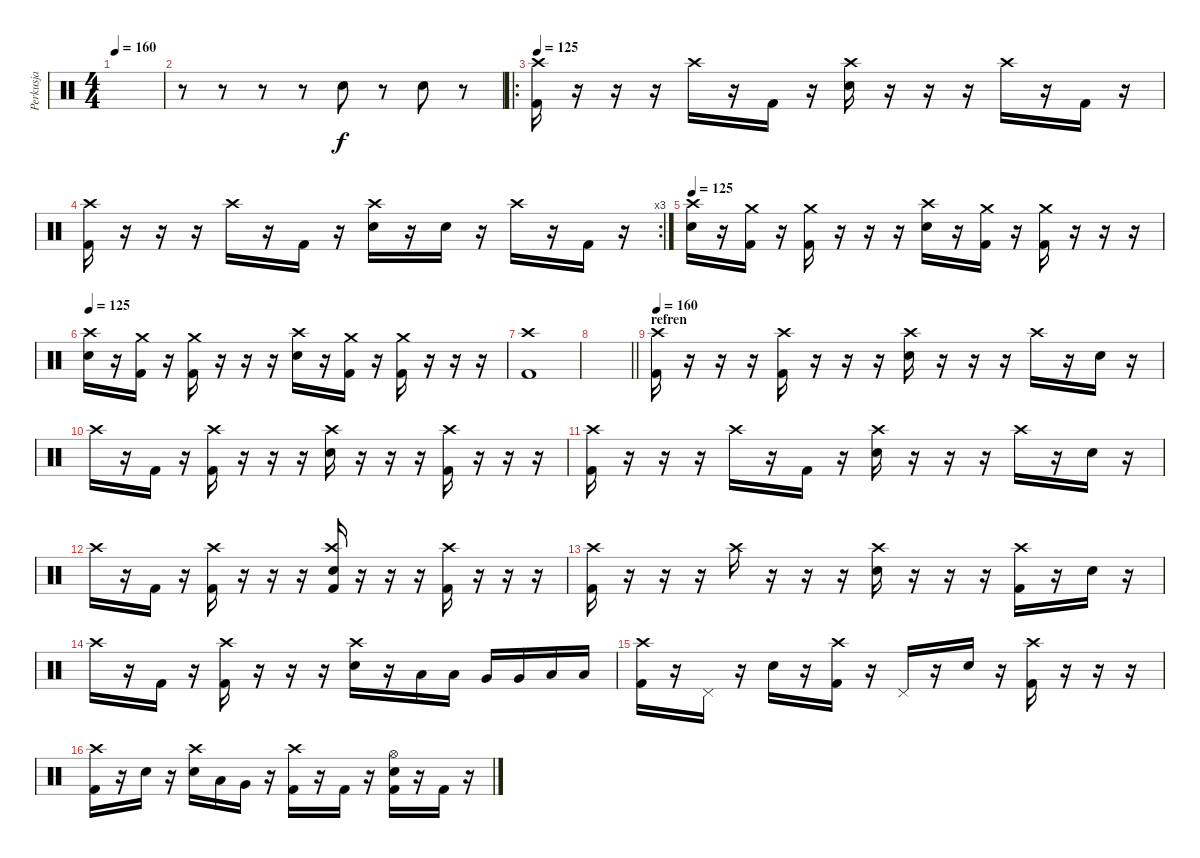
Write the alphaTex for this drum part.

\track ("Perkusja" "Perkusja") {instrument percussion}
\staff {score}
\articulation defaults
\ts (4 4)
\tempo 160
\clef neutral
\ks c
|
r.8 r.8 r.8 r.8 "Electric Snare (hit)".8 r.8 "Electric Snare (hit)".8 r.8 |
\ro
\tempo 125
("Crash high (hit)" "Kick (hit) 2").16 r.16 r.16 r.16 "Crash high (hit)".16 r.16 "Kick (hit) 2".16 r.16 ("Crash high (hit)" "Electric Snare (hit)").16 r.16 r.16 r.16 "Crash high (hit)".16 r.16 "Kick (hit) 2".16 r.16 |
\rc 3
("Crash high (hit)" "Kick (hit) 2").16 r.16 r.16 r.16 "Crash high (hit)".16 r.16 "Kick (hit) 2".16 r.16 ("Crash high (hit)" "Electric Snare (hit)").16 r.16 "Electric Snare (hit)".16 r.16 "Crash high (hit)".16 r.16 "Kick (hit) 2".16 r.16 |
\tempo 125
("Crash high (hit)" "Electric Snare (hit)").16 r.16 ("Crash medium (hit)" "Kick (hit) 2").16 r.16 ("Crash medium (hit)" "Kick (hit) 2").16 r.16 r.16 r.16 ("Crash high (hit)" "Electric Snare (hit)").16 r.16 ("Crash medium (hit)" "Kick (hit) 2").16 r.16 ("Crash medium (hit)" "Kick (hit) 2").16 r.16 r.16 r.16 |
\tempo 125
("Crash high (hit)" "Electric Snare (hit)").16 r.16 ("Crash medium (hit)" "Kick (hit) 2").16 r.16 ("Crash medium (hit)" "Kick (hit) 2").16 r.16 r.16 r.16 ("Crash high (hit)" "Electric Snare (hit)").16 r.16 ("Crash medium (hit)" "Kick (hit) 2").16 r.16 ("Crash medium (hit)" "Kick (hit) 2").16 r.16 r.16 r.16 |
("Crash high (hit)" "Kick (hit) 2").1 |
\barLineRight lightlight
|
\section ("" "refren")
\tempo 160
("Crash high (hit)" "Kick (hit) 2").16 r.16 r.16 r.16 ("Crash high (hit)" "Kick (hit) 2").16 r.16 r.16 r.16 ("Crash high (hit)" "Electric Snare (hit)").16 r.16 r.16 r.16 "Crash high (hit)".16 r.16 "Electric Snare (hit)".16 r.16 |
"Crash high (hit)".16 r.16 "Kick (hit) 2".16 r.16 ("Crash high (hit)" "Kick (hit) 2").16 r.16 r.16 r.16 ("Crash high (hit)" "Electric Snare (hit)").16 r.16 r.16 r.16 ("Crash high (hit)" "Kick (hit) 2").16 r.16 r.16 r.16 |
("Crash high (hit)" "Kick (hit) 2").16 r.16 r.16 r.16 "Crash high (hit)".16 r.16 "Kick (hit) 2".16 r.16 ("Crash high (hit)" "Electric Snare (hit)").16 r.16 r.16 r.16 "Crash high (hit)".16 r.16 "Electric Snare (hit)".16 r.16 |
"Crash high (hit)".16 r.16 "Kick (hit) 2".16 r.16 ("Crash high (hit)" "Kick (hit) 2").16 r.16 r.16 r.16 ("Crash high (hit)" "Electric Snare (hit)" "Kick (hit) 2").16 r.16 r.16 r.16 ("Crash high (hit)" "Kick (hit) 2").16 r.16 r.16 r.16 |
("Crash high (hit)" "Kick (hit) 2").16 r.16 r.16 r.16 "Crash high (hit)".16 r.16 r.16 r.16 ("Crash high (hit)" "Electric Snare (hit)").16 r.16 r.16 r.16 ("Crash high (hit)" "Kick (hit) 2").16 r.16 "Electric Snare (hit)".16 r.16 |
"Crash high (hit)".16 r.16 "Kick (hit) 2".16 r.16 ("Crash high (hit)" "Kick (hit) 2").16 r.16 r.16 r.16 ("Crash high (hit)" "Electric Snare (hit)").16 r.16 "Low Tom (hit)".16 "Low Tom (hit)".16 "Very Low Tom (hit)".16 "Very Low Tom (hit)".16 "Low Floor Tom (hit)".16 "Low Floor Tom (hit)".16 |
("Crash high (hit)" "Kick (hit) 2").16 r.16 "Pedal Hi-Hat (hit)".16 r.16 "Electric Snare (hit)".16 r.16 ("Crash high (hit)" "Kick (hit) 2").16 r.16 "Pedal Hi-Hat (hit)".16 r.16 "Electric Snare (hit)".16 r.16 ("Crash high (hit)" "Kick (hit) 2").16 r.16 r.16 r.16 |
("Crash high (hit)" "Kick (hit) 2").16 r.16 "Electric Snare (hit)".16 r.16 ("Crash high (hit)" "Electric Snare (hit)").16 "Low Tom (hit)".16 "Very Low Tom (hit)".16 r.16 ("Crash high (hit)" "Kick (hit) 2").16 r.16 "Kick (hit) 2".16 r.16 ("Hi-Hat (open)" "Electric Snare (hit)" "Kick (hit) 2").16 r.16 "Kick (hit) 2".16 r.16
